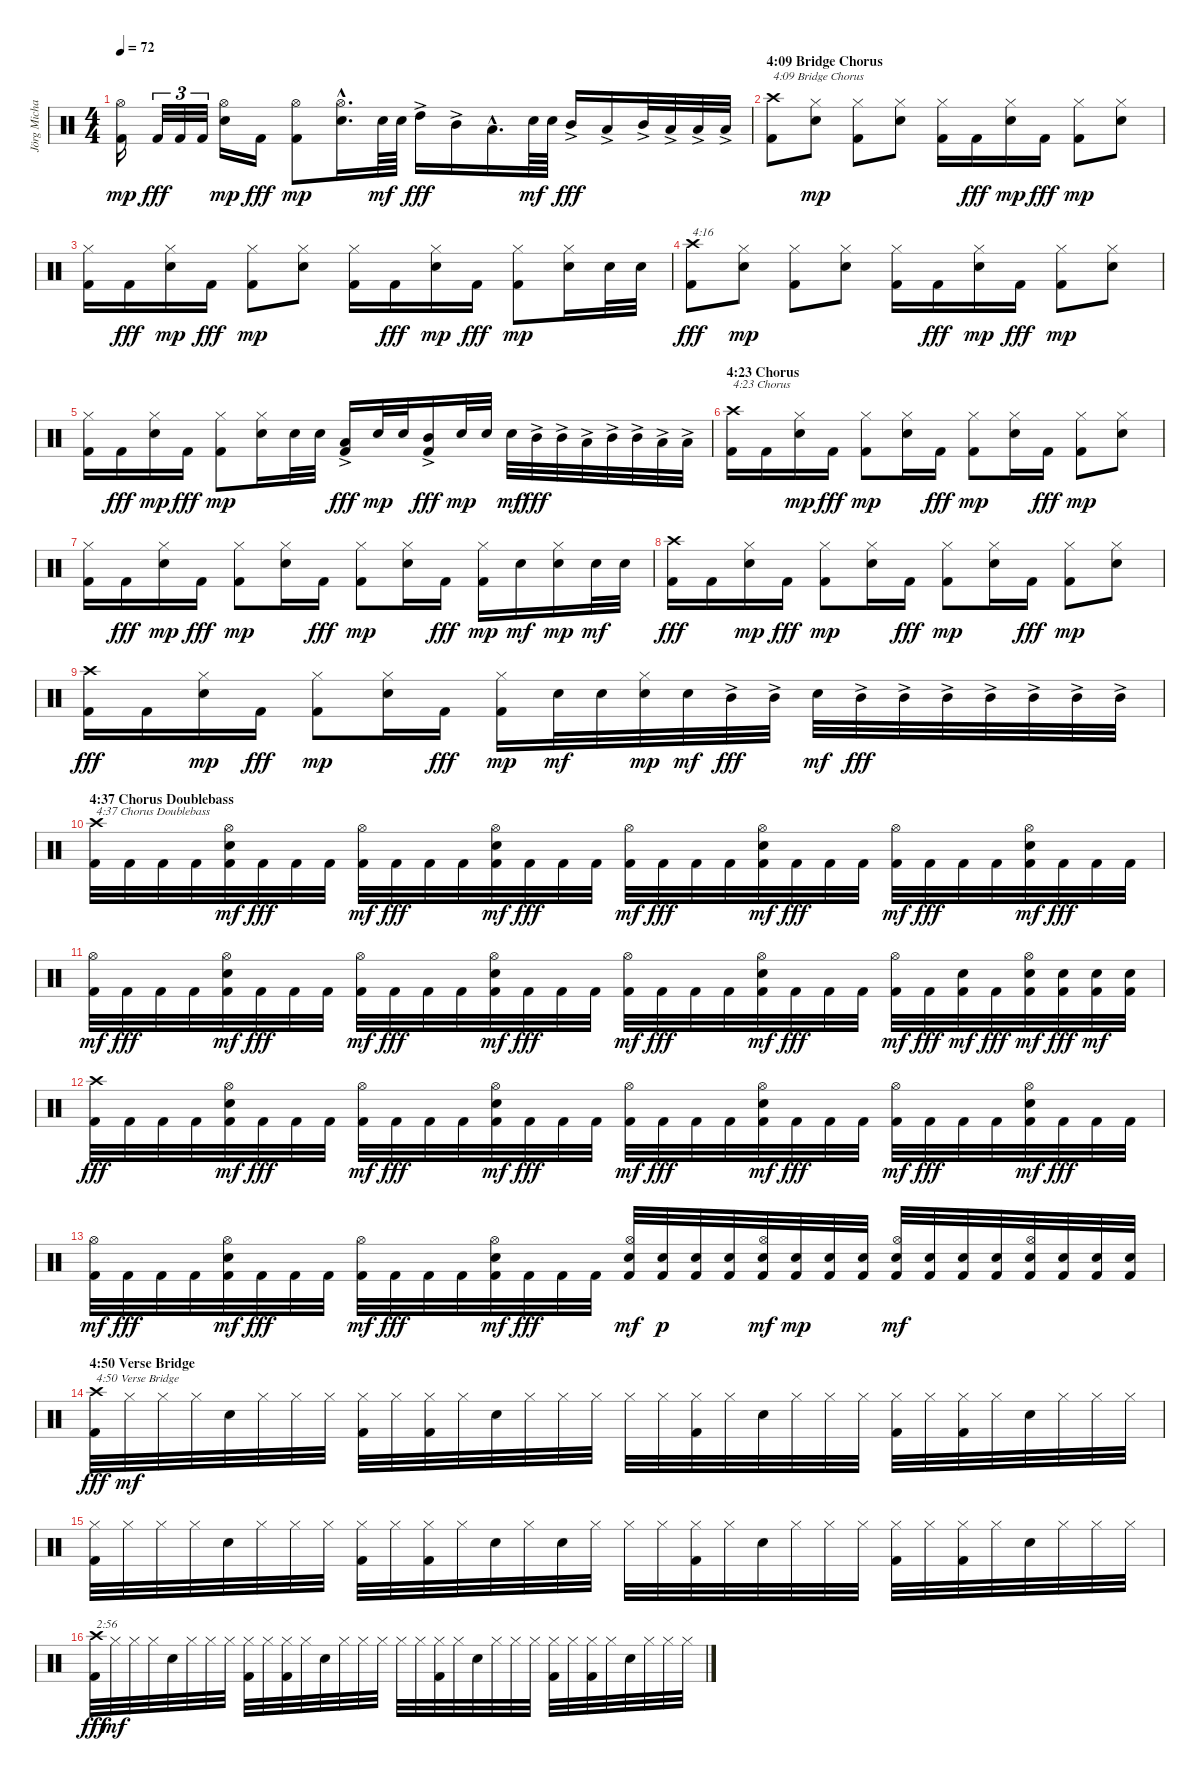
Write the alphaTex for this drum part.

\track ("Jörg Michael" "Jörg Micha") {instrument percussion}
\staff {score}
\articulation defaults
\ts (4 4)
\tempo 72
\clef neutral
\ks c
("Kick (hit) 2" "Hi-Hat (open)").16{dy mp} "Kick (hit) 2".32{tu (3 2) dy fff} "Kick (hit) 2".32{tu (3 2)} "Kick (hit) 2".32{tu (3 2)} ("Snare (hit) 2" "Hi-Hat (open)").16{dy mp} "Kick (hit) 2".16{dy fff} ("Kick (hit) 2" "Hi-Hat (open)").8{dy mp} ("Snare (hit) 2"{hac} "Hi-Hat (open)"{hac}).16{d} "Snare (hit) 2".64{dy mf} "Snare (hit) 2".64 "High Tom (hit)"{ac}.16{dy fff} "Mid Tom (hit)"{ac}.16 "Low Tom (hit)"{hac}.16{d} "Snare (hit) 2".64{dy mf} "Snare (hit) 2".64 "Mid Tom (hit)"{ac}.16{dy fff} "Low Tom (hit)"{ac}.16 "Mid Tom (hit)"{ac}.32 "Low Tom (hit)"{ac}.32 "Low Tom (hit)"{ac}.32 "Low Tom (hit)"{ac}.32 |
\section ("" "4:09 Bridge Chorus ")
("Kick (hit) 2" "Crash high (hit)").8{txt "4:09 Bridge Chorus "} ("Snare (hit) 2" "Hi-Hat (closed)").8{dy mp} ("Kick (hit) 2" "Hi-Hat (closed)").8 ("Snare (hit) 2" "Hi-Hat (closed)").8 ("Kick (hit) 2" "Hi-Hat (closed)").16 "Kick (hit) 2".16{dy fff} ("Snare (hit) 2" "Hi-Hat (closed)").16{dy mp} "Kick (hit) 2".16{dy fff} ("Kick (hit) 2" "Hi-Hat (closed)").8{dy mp} ("Snare (hit) 2" "Hi-Hat (closed)").8 |
("Kick (hit) 2" "Hi-Hat (closed)").16 "Kick (hit) 2".16{dy fff} ("Snare (hit) 2" "Hi-Hat (closed)").16{dy mp} "Kick (hit) 2".16{dy fff} ("Kick (hit) 2" "Hi-Hat (closed)").8{dy mp} ("Snare (hit) 2" "Hi-Hat (closed)").8 ("Kick (hit) 2" "Hi-Hat (closed)").16 "Kick (hit) 2".16{dy fff} ("Snare (hit) 2" "Hi-Hat (closed)").16{dy mp} "Kick (hit) 2".16{dy fff} ("Kick (hit) 2" "Hi-Hat (closed)").8{dy mp} ("Snare (hit) 2" "Hi-Hat (closed)").16 "Snare (hit) 2".32 "Snare (hit) 2".32 |
("Kick (hit) 2" "Crash high (hit)").8{txt "4:16" dy fff} ("Snare (hit) 2" "Hi-Hat (closed)").8{dy mp} ("Kick (hit) 2" "Hi-Hat (closed)").8 ("Snare (hit) 2" "Hi-Hat (closed)").8 ("Kick (hit) 2" "Hi-Hat (closed)").16 "Kick (hit) 2".16{dy fff} ("Snare (hit) 2" "Hi-Hat (closed)").16{dy mp} "Kick (hit) 2".16{dy fff} ("Kick (hit) 2" "Hi-Hat (closed)").8{dy mp} ("Snare (hit) 2" "Hi-Hat (closed)").8 |
("Kick (hit) 2" "Hi-Hat (closed)").16 "Kick (hit) 2".16{dy fff} ("Snare (hit) 2" "Hi-Hat (closed)").16{dy mp} "Kick (hit) 2".16{dy fff} ("Kick (hit) 2" "Hi-Hat (closed)").8{dy mp} ("Snare (hit) 2" "Hi-Hat (closed)").16 "Snare (hit) 2".32 "Snare (hit) 2".32 ("Kick (hit) 2" "Low Tom (hit)"{ac}).16{dy fff} "Snare (hit) 2".32{dy mp} "Snare (hit) 2".32 ("Kick (hit) 2" "Mid Tom (hit)"{ac}).16{dy fff} "Snare (hit) 2".32{dy mp} "Snare (hit) 2".32 "Snare (hit) 2".32{dy mf} "Mid Tom (hit)"{ac}.32{dy fff} "Mid Tom (hit)"{ac}.32 "Low Tom (hit)"{ac}.32 "Mid Tom (hit)"{ac}.32 "Mid Tom (hit)"{ac}.32 "Low Tom (hit)"{ac}.32 "Low Tom (hit)"{ac}.32 |
\section ("" "4:23 Chorus")
("Kick (hit) 2" "Crash high (hit)").16{txt "4:23 Chorus"} "Kick (hit) 2".16 ("Snare (hit) 2" "Hi-Hat (closed)").16{dy mp} "Kick (hit) 2".16{dy fff} ("Kick (hit) 2" "Hi-Hat (closed)").8{dy mp} ("Snare (hit) 2" "Hi-Hat (closed)").16 "Kick (hit) 2".16{dy fff} ("Kick (hit) 2" "Hi-Hat (closed)").8{dy mp} ("Snare (hit) 2" "Hi-Hat (closed)").16 "Kick (hit) 2".16{dy fff} ("Kick (hit) 2" "Hi-Hat (closed)").8{dy mp} ("Snare (hit) 2" "Hi-Hat (closed)").8 |
("Kick (hit) 2" "Hi-Hat (closed)").16 "Kick (hit) 2".16{dy fff} ("Snare (hit) 2" "Hi-Hat (closed)").16{dy mp} "Kick (hit) 2".16{dy fff} ("Kick (hit) 2" "Hi-Hat (closed)").8{dy mp} ("Snare (hit) 2" "Hi-Hat (closed)").16 "Kick (hit) 2".16{dy fff} ("Kick (hit) 2" "Hi-Hat (closed)").8{dy mp} ("Snare (hit) 2" "Hi-Hat (closed)").16 "Kick (hit) 2".16{dy fff} ("Kick (hit) 2" "Hi-Hat (closed)").16{dy mp} "Snare (hit) 2".16{dy mf} ("Snare (hit) 2" "Hi-Hat (closed)").16{dy mp} "Snare (hit) 2".32{dy mf} "Snare (hit) 2".32 |
("Kick (hit) 2" "Crash high (hit)").16{dy fff} "Kick (hit) 2".16 ("Snare (hit) 2" "Hi-Hat (closed)").16{dy mp} "Kick (hit) 2".16{dy fff} ("Kick (hit) 2" "Hi-Hat (closed)").8{dy mp} ("Snare (hit) 2" "Hi-Hat (closed)").16 "Kick (hit) 2".16{dy fff} ("Kick (hit) 2" "Hi-Hat (closed)").8{dy mp} ("Snare (hit) 2" "Hi-Hat (closed)").16 "Kick (hit) 2".16{dy fff} ("Kick (hit) 2" "Hi-Hat (closed)").8{dy mp} ("Snare (hit) 2" "Hi-Hat (closed)").8 |
("Kick (hit) 2" "Crash high (hit)").16{dy fff} "Kick (hit) 2".16 ("Snare (hit) 2" "Hi-Hat (closed)").16{dy mp} "Kick (hit) 2".16{dy fff} ("Kick (hit) 2" "Hi-Hat (closed)").8{dy mp} ("Snare (hit) 2" "Hi-Hat (closed)").16 "Kick (hit) 2".16{dy fff} ("Kick (hit) 2" "Hi-Hat (closed)").16{dy mp} "Snare (hit) 2".32{dy mf} "Snare (hit) 2".32 ("Snare (hit) 2" "Hi-Hat (closed)").32{dy mp} "Snare (hit) 2".32{dy mf} "Mid Tom (hit)"{ac}.32{dy fff} "Mid Tom (hit)"{ac}.32 "Snare (hit) 2".32{dy mf} "Mid Tom (hit)"{ac}.32{dy fff} "Mid Tom (hit)"{ac}.32 "Mid Tom (hit)"{ac}.32 "Mid Tom (hit)"{ac}.32 "Mid Tom (hit)"{ac}.32 "Mid Tom (hit)"{ac}.32 "Mid Tom (hit)"{ac}.32 |
\section ("" "4:37 Chorus Doublebass")
("Kick (hit) 2" "Crash high (hit)").32{txt "4:37 Chorus Doublebass"} "Kick (hit) 2".32 "Kick (hit) 2".32 "Kick (hit) 2".32 ("Kick (hit) 2" "Snare (hit) 2" "Hi-Hat (open)").32{dy mf} "Kick (hit) 2".32{dy fff} "Kick (hit) 2".32 "Kick (hit) 2".32 ("Kick (hit) 2" "Hi-Hat (open)").32{dy mf} "Kick (hit) 2".32{dy fff} "Kick (hit) 2".32 "Kick (hit) 2".32 ("Kick (hit) 2" "Snare (hit) 2" "Hi-Hat (open)").32{dy mf} "Kick (hit) 2".32{dy fff} "Kick (hit) 2".32 "Kick (hit) 2".32 ("Kick (hit) 2" "Hi-Hat (open)").32{dy mf} "Kick (hit) 2".32{dy fff} "Kick (hit) 2".32 "Kick (hit) 2".32 ("Kick (hit) 2" "Snare (hit) 2" "Hi-Hat (open)").32{dy mf} "Kick (hit) 2".32{dy fff} "Kick (hit) 2".32 "Kick (hit) 2".32 ("Kick (hit) 2" "Hi-Hat (open)").32{dy mf} "Kick (hit) 2".32{dy fff} "Kick (hit) 2".32 "Kick (hit) 2".32 ("Kick (hit) 2" "Snare (hit) 2" "Hi-Hat (open)").32{dy mf} "Kick (hit) 2".32{dy fff} "Kick (hit) 2".32 "Kick (hit) 2".32 |
("Kick (hit) 2" "Hi-Hat (open)").32{dy mf} "Kick (hit) 2".32{dy fff} "Kick (hit) 2".32 "Kick (hit) 2".32 ("Kick (hit) 2" "Snare (hit) 2" "Hi-Hat (open)").32{dy mf} "Kick (hit) 2".32{dy fff} "Kick (hit) 2".32 "Kick (hit) 2".32 ("Kick (hit) 2" "Hi-Hat (open)").32{dy mf} "Kick (hit) 2".32{dy fff} "Kick (hit) 2".32 "Kick (hit) 2".32 ("Kick (hit) 2" "Snare (hit) 2" "Hi-Hat (open)").32{dy mf} "Kick (hit) 2".32{dy fff} "Kick (hit) 2".32 "Kick (hit) 2".32 ("Kick (hit) 2" "Hi-Hat (open)").32{dy mf} "Kick (hit) 2".32{dy fff} "Kick (hit) 2".32 "Kick (hit) 2".32 ("Kick (hit) 2" "Snare (hit) 2" "Hi-Hat (open)").32{dy mf} "Kick (hit) 2".32{dy fff} "Kick (hit) 2".32 "Kick (hit) 2".32 ("Kick (hit) 2" "Hi-Hat (open)").32{dy mf} "Kick (hit) 2".32{dy fff} ("Kick (hit) 2" "Snare (hit) 2").32{dy mf} "Kick (hit) 2".32{dy fff} ("Kick (hit) 2" "Snare (hit) 2" "Hi-Hat (open)").32{dy mf} ("Kick (hit) 2" "Snare (hit) 2").32{dy fff} ("Kick (hit) 2" "Snare (hit) 2").32{dy mf} ("Kick (hit) 2" "Snare (hit) 2").32 |
("Kick (hit) 2" "Crash high (hit)").32{dy fff} "Kick (hit) 2".32 "Kick (hit) 2".32 "Kick (hit) 2".32 ("Kick (hit) 2" "Snare (hit) 2" "Hi-Hat (open)").32{dy mf} "Kick (hit) 2".32{dy fff} "Kick (hit) 2".32 "Kick (hit) 2".32 ("Kick (hit) 2" "Hi-Hat (open)").32{dy mf} "Kick (hit) 2".32{dy fff} "Kick (hit) 2".32 "Kick (hit) 2".32 ("Kick (hit) 2" "Snare (hit) 2" "Hi-Hat (open)").32{dy mf} "Kick (hit) 2".32{dy fff} "Kick (hit) 2".32 "Kick (hit) 2".32 ("Kick (hit) 2" "Hi-Hat (open)").32{dy mf} "Kick (hit) 2".32{dy fff} "Kick (hit) 2".32 "Kick (hit) 2".32 ("Kick (hit) 2" "Snare (hit) 2" "Hi-Hat (open)").32{dy mf} "Kick (hit) 2".32{dy fff} "Kick (hit) 2".32 "Kick (hit) 2".32 ("Kick (hit) 2" "Hi-Hat (open)").32{dy mf} "Kick (hit) 2".32{dy fff} "Kick (hit) 2".32 "Kick (hit) 2".32 ("Kick (hit) 2" "Snare (hit) 2" "Hi-Hat (open)").32{dy mf} "Kick (hit) 2".32{dy fff} "Kick (hit) 2".32 "Kick (hit) 2".32 |
("Kick (hit) 2" "Hi-Hat (open)").32{dy mf} "Kick (hit) 2".32{dy fff} "Kick (hit) 2".32 "Kick (hit) 2".32 ("Kick (hit) 2" "Snare (hit) 2" "Hi-Hat (open)").32{dy mf} "Kick (hit) 2".32{dy fff} "Kick (hit) 2".32 "Kick (hit) 2".32 ("Kick (hit) 2" "Hi-Hat (open)").32{dy mf} "Kick (hit) 2".32{dy fff} "Kick (hit) 2".32 "Kick (hit) 2".32 ("Kick (hit) 2" "Snare (hit) 2" "Hi-Hat (open)").32{dy mf} "Kick (hit) 2".32{dy fff} "Kick (hit) 2".32 "Kick (hit) 2".32 ("Kick (hit) 2" "Snare (hit) 2" "Hi-Hat (open)").32{dy mf} ("Kick (hit) 2" "Snare (hit) 2").32{dy p} ("Kick (hit) 2" "Snare (hit) 2").32 ("Kick (hit) 2" "Snare (hit) 2").32 ("Kick (hit) 2" "Snare (hit) 2" "Hi-Hat (open)").32{dy mf} ("Kick (hit) 2" "Snare (hit) 2").32{dy mp} ("Kick (hit) 2" "Snare (hit) 2").32 ("Kick (hit) 2" "Snare (hit) 2").32 ("Kick (hit) 2" "Snare (hit) 2" "Hi-Hat (open)").32{dy mf} ("Kick (hit) 2" "Snare (hit) 2").32 ("Kick (hit) 2" "Snare (hit) 2").32 ("Kick (hit) 2" "Snare (hit) 2").32 ("Kick (hit) 2" "Snare (hit) 2" "Hi-Hat (open)").32 ("Kick (hit) 2" "Snare (hit) 2").32 ("Kick (hit) 2" "Snare (hit) 2").32 ("Kick (hit) 2" "Snare (hit) 2").32 |
\section ("" "4:50 Verse Bridge")
("Kick (hit) 2" "Crash high (hit)").32{txt "4:50 Verse Bridge" dy fff} "Hi-Hat (closed)".32{dy mf} "Hi-Hat (closed)".32 "Hi-Hat (closed)".32 "Snare (hit) 2".32 "Hi-Hat (closed)".32 "Hi-Hat (closed)".32 "Hi-Hat (closed)".32 ("Kick (hit) 2" "Hi-Hat (closed)").32 "Hi-Hat (closed)".32 ("Kick (hit) 2" "Hi-Hat (closed)").32 "Hi-Hat (closed)".32 "Snare (hit) 2".32 "Hi-Hat (closed)".32 "Hi-Hat (closed)".32 "Hi-Hat (closed)".32 "Hi-Hat (closed)".32 "Hi-Hat (closed)".32 ("Kick (hit) 2" "Hi-Hat (closed)").32 "Hi-Hat (closed)".32 "Snare (hit) 2".32 "Hi-Hat (closed)".32 "Hi-Hat (closed)".32 "Hi-Hat (closed)".32 ("Kick (hit) 2" "Hi-Hat (closed)").32 "Hi-Hat (closed)".32 ("Kick (hit) 2" "Hi-Hat (closed)").32 "Hi-Hat (closed)".32 "Snare (hit) 2".32 "Hi-Hat (closed)".32 "Hi-Hat (closed)".32 "Hi-Hat (closed)".32 |
("Kick (hit) 2" "Hi-Hat (closed)").32 "Hi-Hat (closed)".32 "Hi-Hat (closed)".32 "Hi-Hat (closed)".32 "Snare (hit) 2".32 "Hi-Hat (closed)".32 "Hi-Hat (closed)".32 "Hi-Hat (closed)".32 ("Kick (hit) 2" "Hi-Hat (closed)").32 "Hi-Hat (closed)".32 ("Kick (hit) 2" "Hi-Hat (closed)").32 "Hi-Hat (closed)".32 "Snare (hit) 2".32 "Hi-Hat (closed)".32 "Snare (hit) 2".32 "Hi-Hat (closed)".32 "Hi-Hat (closed)".32 "Hi-Hat (closed)".32 ("Kick (hit) 2" "Hi-Hat (closed)").32 "Hi-Hat (closed)".32 "Snare (hit) 2".32 "Hi-Hat (closed)".32 "Hi-Hat (closed)".32 "Hi-Hat (closed)".32 ("Kick (hit) 2" "Hi-Hat (closed)").32 "Hi-Hat (closed)".32 ("Kick (hit) 2" "Hi-Hat (closed)").32 "Hi-Hat (closed)".32 "Snare (hit) 2".32 "Hi-Hat (closed)".32 "Hi-Hat (closed)".32 "Hi-Hat (closed)".32 |
("Kick (hit) 2" "Crash high (hit)").32{txt "2:56" dy fff} "Hi-Hat (closed)".32{dy mf} "Hi-Hat (closed)".32 "Hi-Hat (closed)".32 "Snare (hit) 2".32 "Hi-Hat (closed)".32 "Hi-Hat (closed)".32 "Hi-Hat (closed)".32 ("Kick (hit) 2" "Hi-Hat (closed)").32 "Hi-Hat (closed)".32 ("Kick (hit) 2" "Hi-Hat (closed)").32 "Hi-Hat (closed)".32 "Snare (hit) 2".32 "Hi-Hat (closed)".32 "Hi-Hat (closed)".32 "Hi-Hat (closed)".32 "Hi-Hat (closed)".32 "Hi-Hat (closed)".32 ("Kick (hit) 2" "Hi-Hat (closed)").32 "Hi-Hat (closed)".32 "Snare (hit) 2".32 "Hi-Hat (closed)".32 "Hi-Hat (closed)".32 "Hi-Hat (closed)".32 ("Kick (hit) 2" "Hi-Hat (closed)").32 "Hi-Hat (closed)".32 ("Kick (hit) 2" "Hi-Hat (closed)").32 "Hi-Hat (closed)".32 "Snare (hit) 2".32 "Hi-Hat (closed)".32 "Hi-Hat (closed)".32 "Hi-Hat (closed)".32
